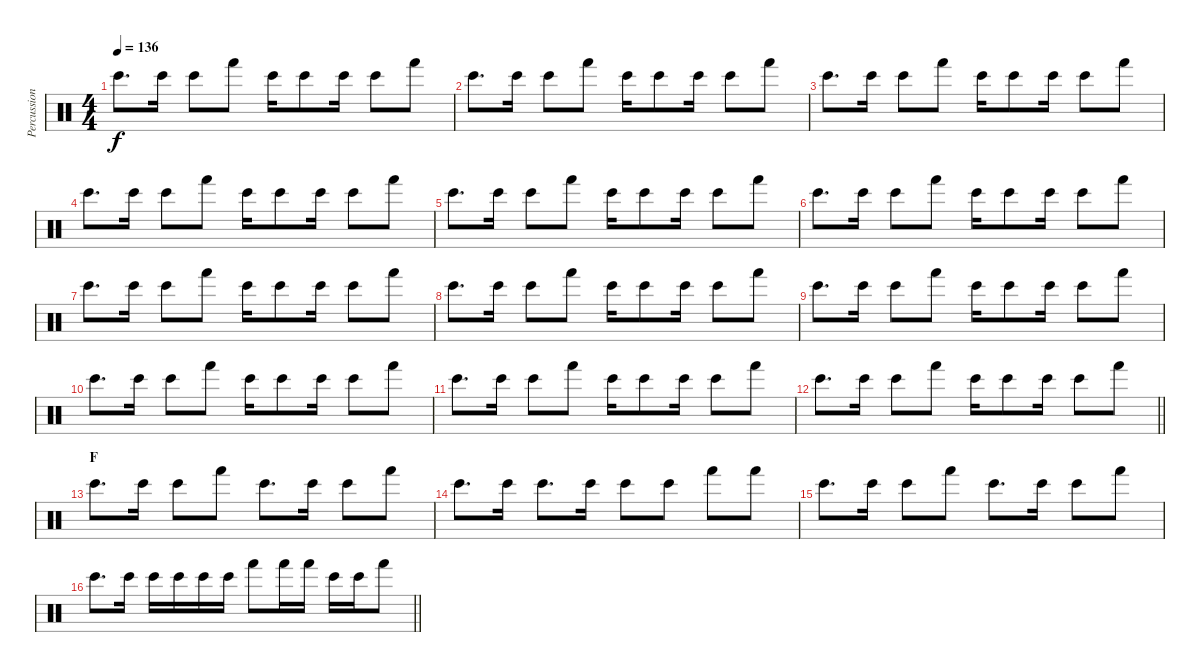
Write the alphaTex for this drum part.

\track ("Percussion" "Percussion") {instrument percussion}
\staff {score}
\articulation defaults
\ts (4 4)
\tempo 136
\clef neutral
\ks c "Bongo High (hit)".8{d dy f} "Bongo High (hit)".16 "Bongo High (hit)".8 "Hand (hit)".8 "Bongo High (hit)".16 "Bongo High (hit)".8 "Bongo High (hit)".16 "Bongo High (hit)".8 "Hand (hit)".8
|
"Bongo High (hit)".8{d} "Bongo High (hit)".16 "Bongo High (hit)".8 "Hand (hit)".8 "Bongo High (hit)".16 "Bongo High (hit)".8 "Bongo High (hit)".16 "Bongo High (hit)".8 "Hand (hit)".8 |
"Bongo High (hit)".8{d} "Bongo High (hit)".16 "Bongo High (hit)".8 "Hand (hit)".8 "Bongo High (hit)".16 "Bongo High (hit)".8 "Bongo High (hit)".16 "Bongo High (hit)".8 "Hand (hit)".8 |
"Bongo High (hit)".8{d} "Bongo High (hit)".16 "Bongo High (hit)".8 "Hand (hit)".8 "Bongo High (hit)".16 "Bongo High (hit)".8 "Bongo High (hit)".16 "Bongo High (hit)".8 "Hand (hit)".8 |
"Bongo High (hit)".8{d} "Bongo High (hit)".16 "Bongo High (hit)".8 "Hand (hit)".8 "Bongo High (hit)".16 "Bongo High (hit)".8 "Bongo High (hit)".16 "Bongo High (hit)".8 "Hand (hit)".8 |
"Bongo High (hit)".8{d} "Bongo High (hit)".16 "Bongo High (hit)".8 "Hand (hit)".8 "Bongo High (hit)".16 "Bongo High (hit)".8 "Bongo High (hit)".16 "Bongo High (hit)".8 "Hand (hit)".8 |
"Bongo High (hit)".8{d} "Bongo High (hit)".16 "Bongo High (hit)".8 "Hand (hit)".8 "Bongo High (hit)".16 "Bongo High (hit)".8 "Bongo High (hit)".16 "Bongo High (hit)".8 "Hand (hit)".8 |
"Bongo High (hit)".8{d} "Bongo High (hit)".16 "Bongo High (hit)".8 "Hand (hit)".8 "Bongo High (hit)".16 "Bongo High (hit)".8 "Bongo High (hit)".16 "Bongo High (hit)".8 "Hand (hit)".8 |
"Bongo High (hit)".8{d} "Bongo High (hit)".16 "Bongo High (hit)".8 "Hand (hit)".8 "Bongo High (hit)".16 "Bongo High (hit)".8 "Bongo High (hit)".16 "Bongo High (hit)".8 "Hand (hit)".8 |
"Bongo High (hit)".8{d} "Bongo High (hit)".16 "Bongo High (hit)".8 "Hand (hit)".8 "Bongo High (hit)".16 "Bongo High (hit)".8 "Bongo High (hit)".16 "Bongo High (hit)".8 "Hand (hit)".8 |
"Bongo High (hit)".8{d} "Bongo High (hit)".16 "Bongo High (hit)".8 "Hand (hit)".8 "Bongo High (hit)".16 "Bongo High (hit)".8 "Bongo High (hit)".16 "Bongo High (hit)".8 "Hand (hit)".8 |
\barLineRight lightlight "Bongo High (hit)".8{d} "Bongo High (hit)".16 "Bongo High (hit)".8 "Hand (hit)".8 "Bongo High (hit)".16 "Bongo High (hit)".8 "Bongo High (hit)".16 "Bongo High (hit)".8 "Hand (hit)".8
|
\section ("" "F")
"Bongo High (hit)".8{d} "Bongo High (hit)".16 "Bongo High (hit)".8 "Hand (hit)".8 "Bongo High (hit)".8{d} "Bongo High (hit)".16 "Bongo High (hit)".8 "Hand (hit)".8 |
"Bongo High (hit)".8{d} "Bongo High (hit)".16 "Bongo High (hit)".8{d} "Bongo High (hit)".16 "Bongo High (hit)".8 "Bongo High (hit)".8 "Hand (hit)".8 "Hand (hit)".8 |
"Bongo High (hit)".8{d} "Bongo High (hit)".16 "Bongo High (hit)".8 "Hand (hit)".8 "Bongo High (hit)".8{d} "Bongo High (hit)".16 "Bongo High (hit)".8 "Hand (hit)".8 |
\barLineRight lightlight "Bongo High (hit)".8{d} "Bongo High (hit)".16 "Bongo High (hit)".16 "Bongo High (hit)".16 "Bongo High (hit)".16 "Bongo High (hit)".16 "Hand (hit)".8 "Hand (hit)".16 "Hand (hit)".16 "Bongo High (hit)".16 "Bongo High (hit)".16 "Hand (hit)".8
